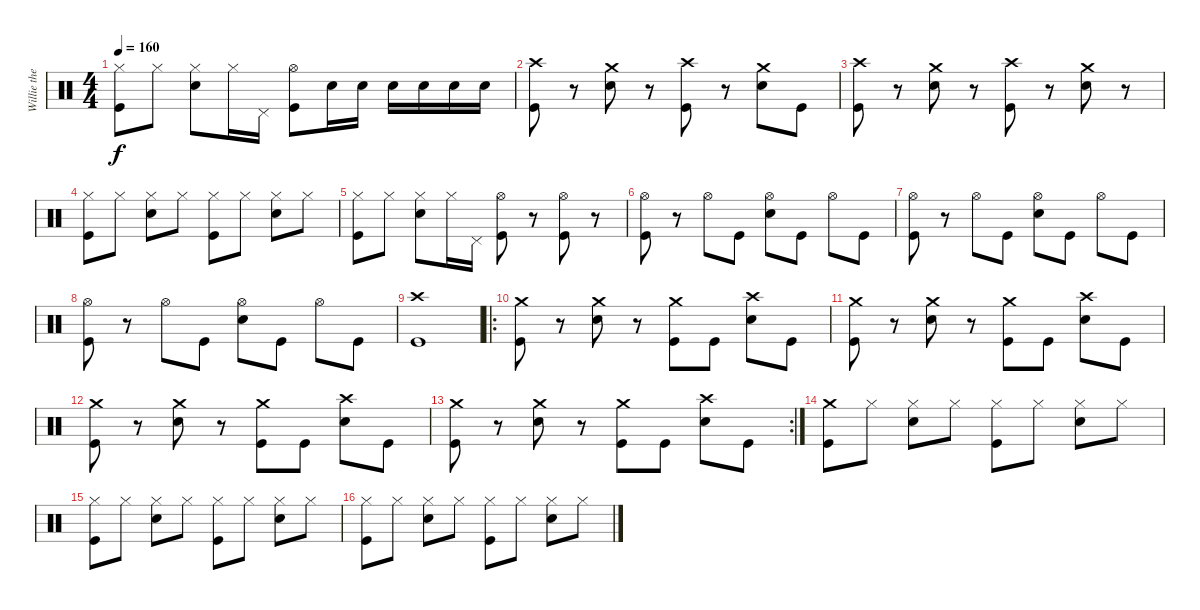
\track ("Willie the new guy" "Willie the") {instrument percussion}
\staff {score}
\articulation defaults
\ts (4 4)
\tempo 160
\clef neutral
\ks c
("Hi-Hat (closed)" "Kick (hit)").8{dy f} "Hi-Hat (closed)".8 ("Hi-Hat (closed)" "Snare (hit) 2").8 "Hi-Hat (closed)".16 "Pedal Hi-Hat (hit)".16 ("Hi-Hat (open)" "Kick (hit)").8 "Snare (hit) 2".16 "Snare (hit) 2".16 "Snare (hit) 2".16 "Snare (hit) 2".16 "Snare (hit) 2".16 "Snare (hit) 2".16 |
("Crash high (hit)" "Kick (hit)").8 r.8 ("Crash medium (hit)" "Snare (hit) 2").8 r.8 ("Crash high (hit)" "Kick (hit)").8 r.8 ("Crash medium (hit)" "Snare (hit) 2").8 "Kick (hit)".8 |
("Crash high (hit)" "Kick (hit)").8 r.8 ("Crash medium (hit)" "Snare (hit) 2").8 r.8 ("Crash high (hit)" "Kick (hit)").8 r.8 ("Crash medium (hit)" "Snare (hit) 2").8 r.8 |
("Hi-Hat (closed)" "Kick (hit)").8 "Hi-Hat (closed)".8 ("Hi-Hat (closed)" "Snare (hit) 2").8 "Hi-Hat (closed)".8 ("Hi-Hat (closed)" "Kick (hit)").8 "Hi-Hat (closed)".8 ("Hi-Hat (closed)" "Snare (hit) 2").8 "Hi-Hat (closed)".8 |
("Hi-Hat (closed)" "Kick (hit)").8 "Hi-Hat (closed)".8 ("Hi-Hat (closed)" "Snare (hit) 2").8 "Hi-Hat (closed)".16 "Pedal Hi-Hat (hit)".16 ("Hi-Hat (open)" "Kick (hit)").8 r.8 ("Hi-Hat (open)" "Kick (hit)").8 r.8 |
("Hi-Hat (open)" "Kick (hit)").8 r.8 "Hi-Hat (open)".8 "Kick (hit)".8 ("Hi-Hat (open)" "Snare (hit) 2").8 "Kick (hit)".8 "Hi-Hat (open)".8 "Kick (hit)".8 |
("Hi-Hat (open)" "Kick (hit)").8 r.8 "Hi-Hat (open)".8 "Kick (hit)".8 ("Hi-Hat (open)" "Snare (hit) 2").8 "Kick (hit)".8 "Hi-Hat (open)".8 "Kick (hit)".8 |
("Hi-Hat (open)" "Kick (hit)").8 r.8 "Hi-Hat (open)".8 "Kick (hit)".8 ("Hi-Hat (open)" "Snare (hit) 2").8 "Kick (hit)".8 "Hi-Hat (open)".8 "Kick (hit)".8 |
("Crash high (hit)" "Kick (hit)").1 |
\ro
("Crash medium (hit)" "Kick (hit)").8 r.8 ("Crash medium (hit)" "Snare (hit) 2").8 r.8 ("Crash medium (hit)" "Kick (hit)").8 "Kick (hit)".8 ("Crash high (hit)" "Snare (hit) 2").8 "Kick (hit)".8 |
("Crash medium (hit)" "Kick (hit)").8 r.8 ("Crash medium (hit)" "Snare (hit) 2").8 r.8 ("Crash medium (hit)" "Kick (hit)").8 "Kick (hit)".8 ("Crash high (hit)" "Snare (hit) 2").8 "Kick (hit)".8 |
("Crash medium (hit)" "Kick (hit)").8 r.8 ("Crash medium (hit)" "Snare (hit) 2").8 r.8 ("Crash medium (hit)" "Kick (hit)").8 "Kick (hit)".8 ("Crash high (hit)" "Snare (hit) 2").8 "Kick (hit)".8 |
\rc 2
("Crash medium (hit)" "Kick (hit)").8 r.8 ("Crash medium (hit)" "Snare (hit) 2").8 r.8 ("Crash medium (hit)" "Kick (hit)").8 "Kick (hit)".8 ("Crash high (hit)" "Snare (hit) 2").8 "Kick (hit)".8 |
("Crash medium (hit)" "Kick (hit)").8 "Hi-Hat (closed)".8 ("Hi-Hat (closed)" "Snare (hit) 2").8 "Hi-Hat (closed)".8 ("Hi-Hat (closed)" "Kick (hit)").8 "Hi-Hat (closed)".8 ("Hi-Hat (closed)" "Snare (hit) 2").8 "Hi-Hat (closed)".8 |
("Hi-Hat (closed)" "Kick (hit)").8 "Hi-Hat (closed)".8 ("Hi-Hat (closed)" "Snare (hit) 2").8 "Hi-Hat (closed)".8 ("Hi-Hat (closed)" "Kick (hit)").8 "Hi-Hat (closed)".8 ("Hi-Hat (closed)" "Snare (hit) 2").8 "Hi-Hat (closed)".8 |
("Hi-Hat (closed)" "Kick (hit)").8 "Hi-Hat (closed)".8 ("Hi-Hat (closed)" "Snare (hit) 2").8 "Hi-Hat (closed)".8 ("Hi-Hat (closed)" "Kick (hit)").8 "Hi-Hat (closed)".8 ("Hi-Hat (closed)" "Snare (hit) 2").8 "Hi-Hat (closed)".8
